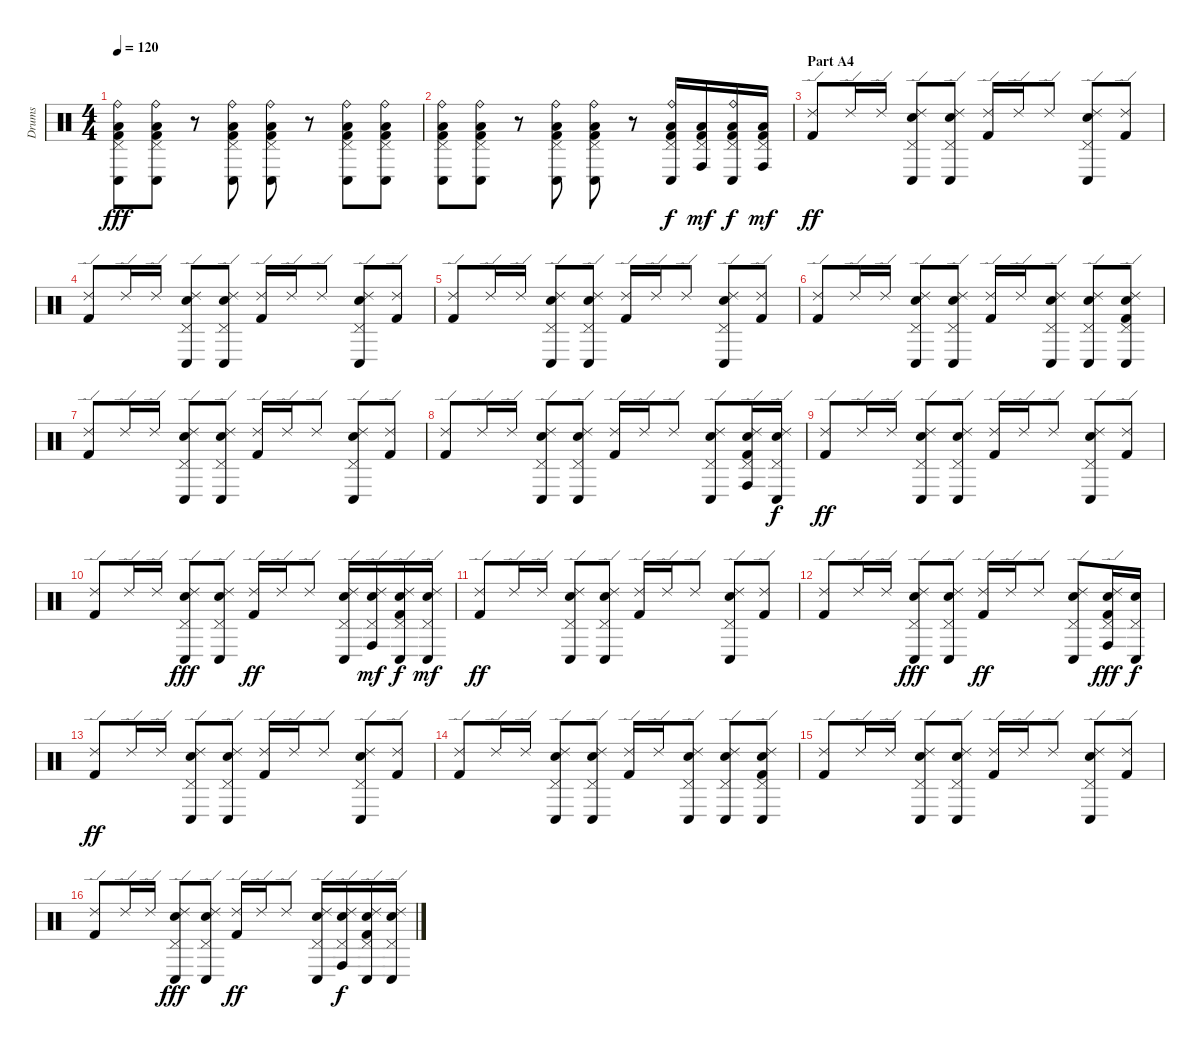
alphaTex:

\track ("Drums" "Drums") {instrument percussion}
\staff {score}
\articulation defaults
\ts (4 4)
\tempo 120
\clef neutral
\ks c
("Ride (bell)" "Pedal Hi-Hat (hit)" "Conga low (hit)" "Low Floor Tom (hit)" "Kick (hit) 2").8{dy fff} ("Ride (bell)" "Pedal Hi-Hat (hit)" "Conga low (hit)" "Low Floor Tom (hit)" "Kick (hit) 2").8 r.8 ("Ride (bell)" "Pedal Hi-Hat (hit)" "Conga low (hit)" "Low Floor Tom (hit)" "Kick (hit) 2").8 ("Ride (bell)" "Pedal Hi-Hat (hit)" "Conga low (hit)" "Low Floor Tom (hit)" "Kick (hit) 2").8 r.8 ("Ride (bell)" "Pedal Hi-Hat (hit)" "Conga low (hit)" "Low Floor Tom (hit)" "Kick (hit) 2").8 ("Ride (bell)" "Pedal Hi-Hat (hit)" "Conga low (hit)" "Low Floor Tom (hit)" "Kick (hit) 2").8 |
("Ride (bell)" "Pedal Hi-Hat (hit)" "Conga low (hit)" "Low Floor Tom (hit)" "Kick (hit) 2").8 ("Ride (bell)" "Pedal Hi-Hat (hit)" "Conga low (hit)" "Low Floor Tom (hit)" "Kick (hit) 2").8 r.8 ("Ride (bell)" "Pedal Hi-Hat (hit)" "Conga low (hit)" "Low Floor Tom (hit)" "Kick (hit) 2").8 ("Ride (bell)" "Pedal Hi-Hat (hit)" "Conga low (hit)" "Low Floor Tom (hit)" "Kick (hit) 2").8 r.8 ("Ride (bell)" "Pedal Hi-Hat (hit)" "Conga low (hit)" "Low Floor Tom (hit)" "Kick (hit) 2").16{dy f} ("Pedal Hi-Hat (hit)" "Conga high (hit)" "Low Floor Tom (hit)" "Kick (hit) 2").16{dy mf} ("Ride (bell)" "Pedal Hi-Hat (hit)" "Conga low (hit)" "Low Floor Tom (hit)" "Kick (hit) 2").16{dy f} ("Pedal Hi-Hat (hit)" "Conga high (hit)" "Low Floor Tom (hit)" "Kick (hit) 2").16{dy mf} |
\section ("" "Part A4")
("Ride (edge) 2" "Kick (hit) 2").8{dy ff} "Ride (edge) 2".16 "Ride (edge) 2".16 ("Ride (edge) 2" "Pedal Hi-Hat (hit)" "Conga low (hit)" "Electric Snare (hit)").8 ("Ride (edge) 2" "Pedal Hi-Hat (hit)" "Conga low (hit)" "Electric Snare (hit)").8 ("Ride (edge) 2" "Kick (hit) 2").16 "Ride (edge) 2".16 "Ride (edge) 2".8 ("Ride (edge) 2" "Pedal Hi-Hat (hit)" "Conga low (hit)" "Electric Snare (hit)").8 ("Ride (edge) 2" "Kick (hit) 2").8 |
("Ride (edge) 2" "Kick (hit) 2").8 "Ride (edge) 2".16 "Ride (edge) 2".16 ("Ride (edge) 2" "Pedal Hi-Hat (hit)" "Conga low (hit)" "Electric Snare (hit)").8 ("Ride (edge) 2" "Pedal Hi-Hat (hit)" "Conga low (hit)" "Electric Snare (hit)").8 ("Ride (edge) 2" "Kick (hit) 2").16 "Ride (edge) 2".16 "Ride (edge) 2".8 ("Ride (edge) 2" "Pedal Hi-Hat (hit)" "Conga low (hit)" "Electric Snare (hit)").8 ("Ride (edge) 2" "Kick (hit) 2").8 |
("Ride (edge) 2" "Kick (hit) 2").8 "Ride (edge) 2".16 "Ride (edge) 2".16 ("Ride (edge) 2" "Pedal Hi-Hat (hit)" "Conga low (hit)" "Electric Snare (hit)").8 ("Ride (edge) 2" "Pedal Hi-Hat (hit)" "Conga low (hit)" "Electric Snare (hit)").8 ("Ride (edge) 2" "Kick (hit) 2").16 "Ride (edge) 2".16 "Ride (edge) 2".8 ("Ride (edge) 2" "Pedal Hi-Hat (hit)" "Conga low (hit)" "Electric Snare (hit)").8 ("Ride (edge) 2" "Kick (hit) 2").8 |
("Ride (edge) 2" "Kick (hit) 2").8 "Ride (edge) 2".16 "Ride (edge) 2".16 ("Ride (edge) 2" "Pedal Hi-Hat (hit)" "Conga low (hit)" "Electric Snare (hit)").8 ("Ride (edge) 2" "Pedal Hi-Hat (hit)" "Conga low (hit)" "Electric Snare (hit)").8 ("Ride (edge) 2" "Kick (hit) 2").16 "Ride (edge) 2".16 ("Ride (edge) 2" "Pedal Hi-Hat (hit)" "Conga low (hit)" "Electric Snare (hit)").8 ("Ride (edge) 2" "Pedal Hi-Hat (hit)" "Conga low (hit)" "Electric Snare (hit)").8 ("Ride (edge) 2" "Pedal Hi-Hat (hit)" "Conga low (hit)" "Electric Snare (hit)" "Kick (hit) 2").8 |
("Ride (edge) 2" "Kick (hit) 2").8 "Ride (edge) 2".16 "Ride (edge) 2".16 ("Ride (edge) 2" "Pedal Hi-Hat (hit)" "Conga low (hit)" "Electric Snare (hit)").8 ("Ride (edge) 2" "Pedal Hi-Hat (hit)" "Conga low (hit)" "Electric Snare (hit)").8 ("Ride (edge) 2" "Kick (hit) 2").16 "Ride (edge) 2".16 "Ride (edge) 2".8 ("Ride (edge) 2" "Pedal Hi-Hat (hit)" "Conga low (hit)" "Electric Snare (hit)").8 ("Ride (edge) 2" "Kick (hit) 2").8 |
("Ride (edge) 2" "Kick (hit) 2").8 "Ride (edge) 2".16 "Ride (edge) 2".16 ("Ride (edge) 2" "Pedal Hi-Hat (hit)" "Conga low (hit)" "Electric Snare (hit)").8 ("Ride (edge) 2" "Pedal Hi-Hat (hit)" "Conga low (hit)" "Electric Snare (hit)").8 ("Ride (edge) 2" "Kick (hit) 2").16 "Ride (edge) 2".16 "Ride (edge) 2".8 ("Ride (edge) 2" "Pedal Hi-Hat (hit)" "Conga low (hit)" "Electric Snare (hit)").8 ("Ride (edge) 2" "Pedal Hi-Hat (hit)" "Conga high (hit)" "Electric Snare (hit)" "Kick (hit) 2").16 ("Ride (edge) 2" "Pedal Hi-Hat (hit)" "Conga low (hit)" "Electric Snare (hit)").16{dy f} |
("Ride (edge) 2" "Kick (hit) 2").8{dy ff} "Ride (edge) 2".16 "Ride (edge) 2".16 ("Ride (edge) 2" "Pedal Hi-Hat (hit)" "Conga low (hit)" "Electric Snare (hit)").8 ("Ride (edge) 2" "Pedal Hi-Hat (hit)" "Conga low (hit)" "Electric Snare (hit)").8 ("Ride (edge) 2" "Kick (hit) 2").16 "Ride (edge) 2".16 "Ride (edge) 2".8 ("Ride (edge) 2" "Pedal Hi-Hat (hit)" "Conga low (hit)" "Electric Snare (hit)").8 ("Ride (edge) 2" "Kick (hit) 2").8 |
("Ride (edge) 2" "Kick (hit) 2").8 "Ride (edge) 2".16 "Ride (edge) 2".16 ("Ride (edge) 2" "Pedal Hi-Hat (hit)" "Conga low (hit)" "Electric Snare (hit)").8{dy fff} ("Ride (edge) 2" "Pedal Hi-Hat (hit)" "Conga low (hit)" "Electric Snare (hit)").8 ("Ride (edge) 2" "Kick (hit) 2").16{dy ff} "Ride (edge) 2".16 "Ride (edge) 2".8 ("Ride (edge) 2" "Pedal Hi-Hat (hit)" "Conga low (hit)" "Electric Snare (hit)").16 ("Ride (edge) 2" "Pedal Hi-Hat (hit)" "Conga high (hit)" "Electric Snare (hit)").16{dy mf} ("Ride (edge) 2" "Pedal Hi-Hat (hit)" "Conga low (hit)" "Electric Snare (hit)" "Kick (hit) 2").16{dy f} ("Ride (edge) 2" "Pedal Hi-Hat (hit)" "Conga low (hit)" "Electric Snare (hit)").16{dy mf} |
("Ride (edge) 2" "Kick (hit) 2").8{dy ff} "Ride (edge) 2".16 "Ride (edge) 2".16 ("Ride (edge) 2" "Pedal Hi-Hat (hit)" "Conga low (hit)" "Electric Snare (hit)").8 ("Ride (edge) 2" "Pedal Hi-Hat (hit)" "Conga low (hit)" "Electric Snare (hit)").8 ("Ride (edge) 2" "Kick (hit) 2").16 "Ride (edge) 2".16 "Ride (edge) 2".8 ("Ride (edge) 2" "Pedal Hi-Hat (hit)" "Conga low (hit)" "Electric Snare (hit)").8 ("Ride (edge) 2" "Kick (hit) 2").8 |
("Ride (edge) 2" "Kick (hit) 2").8 "Ride (edge) 2".16 "Ride (edge) 2".16 ("Ride (edge) 2" "Pedal Hi-Hat (hit)" "Conga low (hit)" "Electric Snare (hit)").8{dy fff} ("Ride (edge) 2" "Pedal Hi-Hat (hit)" "Conga low (hit)" "Electric Snare (hit)").8 ("Ride (edge) 2" "Kick (hit) 2").16{dy ff} "Ride (edge) 2".16 "Ride (edge) 2".8 ("Ride (edge) 2" "Pedal Hi-Hat (hit)" "Conga low (hit)" "Electric Snare (hit)").8 ("Ride (edge) 2" "Pedal Hi-Hat (hit)" "Conga high (hit)" "Electric Snare (hit)" "Kick (hit) 2").16{dy fff} ("Pedal Hi-Hat (hit)" "Conga low (hit)" "Electric Snare (hit)").16{dy f} |
("Ride (edge) 2" "Kick (hit) 2").8{dy ff} "Ride (edge) 2".16 "Ride (edge) 2".16 ("Ride (edge) 2" "Pedal Hi-Hat (hit)" "Conga low (hit)" "Electric Snare (hit)").8 ("Ride (edge) 2" "Pedal Hi-Hat (hit)" "Conga low (hit)" "Electric Snare (hit)").8 ("Ride (edge) 2" "Kick (hit) 2").16 "Ride (edge) 2".16 "Ride (edge) 2".8 ("Ride (edge) 2" "Pedal Hi-Hat (hit)" "Conga low (hit)" "Electric Snare (hit)").8 ("Ride (edge) 2" "Kick (hit) 2").8 |
("Ride (edge) 2" "Kick (hit) 2").8 "Ride (edge) 2".16 "Ride (edge) 2".16 ("Ride (edge) 2" "Pedal Hi-Hat (hit)" "Conga low (hit)" "Electric Snare (hit)").8 ("Ride (edge) 2" "Pedal Hi-Hat (hit)" "Conga low (hit)" "Electric Snare (hit)").8 ("Ride (edge) 2" "Kick (hit) 2").16 "Ride (edge) 2".16 ("Ride (edge) 2" "Pedal Hi-Hat (hit)" "Conga low (hit)" "Electric Snare (hit)").8 ("Ride (edge) 2" "Pedal Hi-Hat (hit)" "Conga low (hit)" "Electric Snare (hit)").8 ("Ride (edge) 2" "Pedal Hi-Hat (hit)" "Conga low (hit)" "Electric Snare (hit)" "Kick (hit) 2").8 |
("Ride (edge) 2" "Kick (hit) 2").8 "Ride (edge) 2".16 "Ride (edge) 2".16 ("Ride (edge) 2" "Pedal Hi-Hat (hit)" "Conga low (hit)" "Electric Snare (hit)").8 ("Ride (edge) 2" "Pedal Hi-Hat (hit)" "Conga low (hit)" "Electric Snare (hit)").8 ("Ride (edge) 2" "Kick (hit) 2").16 "Ride (edge) 2".16 "Ride (edge) 2".8 ("Ride (edge) 2" "Pedal Hi-Hat (hit)" "Conga low (hit)" "Electric Snare (hit)").8 ("Ride (edge) 2" "Kick (hit) 2").8 |
("Ride (edge) 2" "Kick (hit) 2").8 "Ride (edge) 2".16 "Ride (edge) 2".16 ("Ride (edge) 2" "Pedal Hi-Hat (hit)" "Conga low (hit)" "Electric Snare (hit)").8{dy fff} ("Ride (edge) 2" "Pedal Hi-Hat (hit)" "Conga low (hit)" "Electric Snare (hit)").8 ("Ride (edge) 2" "Kick (hit) 2").16{dy ff} "Ride (edge) 2".16 "Ride (edge) 2".8 ("Ride (edge) 2" "Pedal Hi-Hat (hit)" "Conga low (hit)" "Electric Snare (hit)").16 ("Ride (edge) 2" "Pedal Hi-Hat (hit)" "Conga high (hit)" "Electric Snare (hit)").16{dy f} ("Ride (edge) 2" "Pedal Hi-Hat (hit)" "Conga low (hit)" "Electric Snare (hit)" "Kick (hit) 2").16 ("Ride (edge) 2" "Pedal Hi-Hat (hit)" "Conga low (hit)" "Electric Snare (hit)").16
